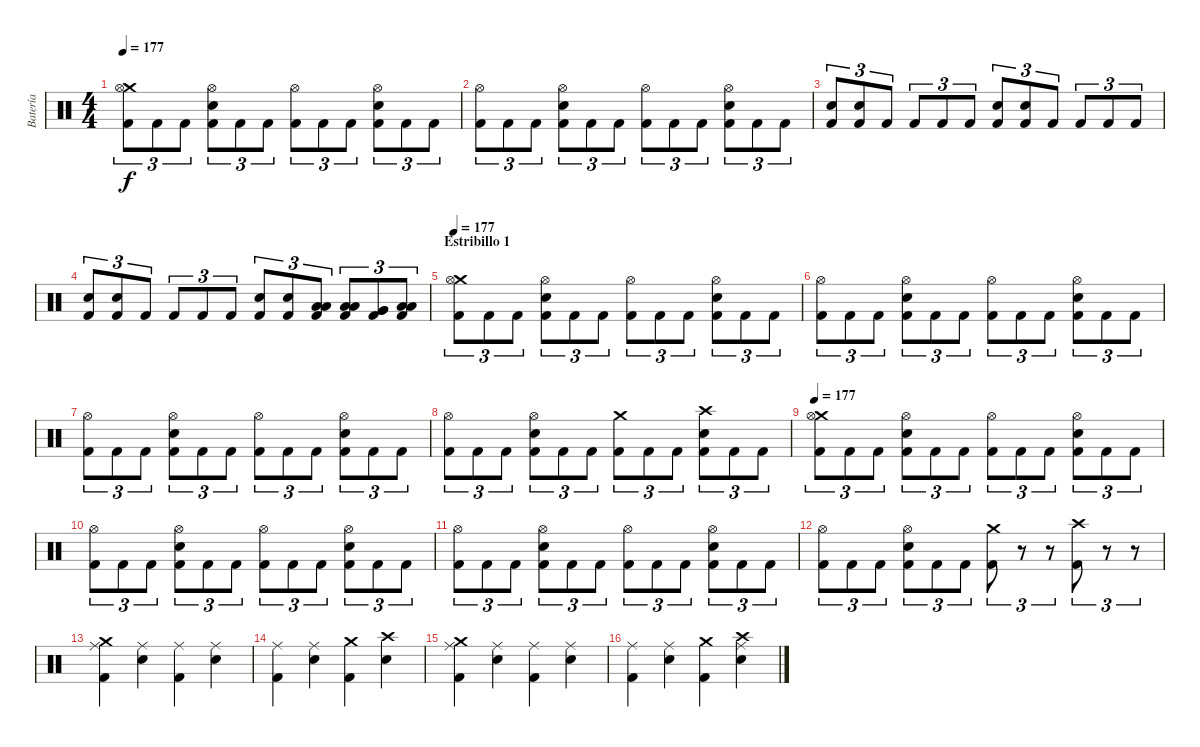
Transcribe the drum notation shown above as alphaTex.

\track ("Batería" "Batería") {instrument percussion}
\staff {score}
\articulation defaults
\ts (4 4)
\tempo 177
\clef neutral
\ks c
("Crash medium (hit)" "Hi-Hat (open)" "Kick (hit) 2").8{tu (3 2) dy f} "Kick (hit) 2".8{tu (3 2)} "Kick (hit) 2".8{tu (3 2)} ("Hi-Hat (open)" "Snare (hit) 2" "Kick (hit) 2").8{tu (3 2)} "Kick (hit) 2".8{tu (3 2)} "Kick (hit) 2".8{tu (3 2)} ("Hi-Hat (open)" "Kick (hit) 2").8{tu (3 2)} "Kick (hit) 2".8{tu (3 2)} "Kick (hit) 2".8{tu (3 2)} ("Hi-Hat (open)" "Snare (hit) 2" "Kick (hit) 2").8{tu (3 2)} "Kick (hit) 2".8{tu (3 2)} "Kick (hit) 2".8{tu (3 2)} |
("Hi-Hat (open)" "Kick (hit) 2").8{tu (3 2)} "Kick (hit) 2".8{tu (3 2)} "Kick (hit) 2".8{tu (3 2)} ("Hi-Hat (open)" "Snare (hit) 2" "Kick (hit) 2").8{tu (3 2)} "Kick (hit) 2".8{tu (3 2)} "Kick (hit) 2".8{tu (3 2)} ("Hi-Hat (open)" "Kick (hit) 2").8{tu (3 2)} "Kick (hit) 2".8{tu (3 2)} "Kick (hit) 2".8{tu (3 2)} ("Hi-Hat (open)" "Snare (hit) 2" "Kick (hit) 2").8{tu (3 2)} "Kick (hit) 2".8{tu (3 2)} "Kick (hit) 2".8{tu (3 2)} |
("Snare (hit) 2" "Kick (hit) 2").8{tu (3 2)} ("Snare (hit) 2" "Kick (hit) 2").8{tu (3 2)} "Kick (hit) 2".8{tu (3 2)} "Kick (hit) 2".8{tu (3 2)} "Kick (hit) 2".8{tu (3 2)} "Kick (hit) 2".8{tu (3 2)} ("Snare (hit) 2" "Kick (hit) 2").8{tu (3 2)} ("Snare (hit) 2" "Kick (hit) 2").8{tu (3 2)} "Kick (hit) 2".8{tu (3 2)} "Kick (hit) 2".8{tu (3 2)} "Kick (hit) 2".8{tu (3 2)} "Kick (hit) 2".8{tu (3 2)} |
("Snare (hit) 2" "Kick (hit) 2").8{tu (3 2)} ("Snare (hit) 2" "Kick (hit) 2").8{tu (3 2)} "Kick (hit) 2".8{tu (3 2)} "Kick (hit) 2".8{tu (3 2)} "Kick (hit) 2".8{tu (3 2)} "Kick (hit) 2".8{tu (3 2)} ("Snare (hit) 2" "Kick (hit) 2").8{tu (3 2)} ("Snare (hit) 2" "Kick (hit) 2").8{tu (3 2)} ("Low Tom (hit)" "Low Tom (hit)" "Kick (hit) 2").8{tu (3 2)} ("Low Tom (hit)" "Low Tom (hit)" "Kick (hit) 2").8{tu (3 2)} ("Very Low Tom (hit)" "Very Low Tom (hit)" "Kick (hit) 2").8{tu (3 2)} ("Low Floor Tom (hit)" "Low Floor Tom (hit)" "Kick (hit) 2").8{tu (3 2)} |
\section ("" "Estribillo 1")
\tempo 177
("Crash medium (hit)" "Hi-Hat (open)" "Kick (hit) 2").8{tu (3 2)} "Kick (hit) 2".8{tu (3 2)} "Kick (hit) 2".8{tu (3 2)} ("Hi-Hat (open)" "Snare (hit) 2" "Kick (hit) 2").8{tu (3 2)} "Kick (hit) 2".8{tu (3 2)} "Kick (hit) 2".8{tu (3 2)} ("Hi-Hat (open)" "Kick (hit) 2").8{tu (3 2)} "Kick (hit) 2".8{tu (3 2)} "Kick (hit) 2".8{tu (3 2)} ("Hi-Hat (open)" "Snare (hit) 2" "Kick (hit) 2").8{tu (3 2)} "Kick (hit) 2".8{tu (3 2)} "Kick (hit) 2".8{tu (3 2)} |
("Hi-Hat (open)" "Kick (hit) 2").8{tu (3 2)} "Kick (hit) 2".8{tu (3 2)} "Kick (hit) 2".8{tu (3 2)} ("Hi-Hat (open)" "Snare (hit) 2" "Kick (hit) 2").8{tu (3 2)} "Kick (hit) 2".8{tu (3 2)} "Kick (hit) 2".8{tu (3 2)} ("Hi-Hat (open)" "Kick (hit) 2").8{tu (3 2)} "Kick (hit) 2".8{tu (3 2)} "Kick (hit) 2".8{tu (3 2)} ("Hi-Hat (open)" "Snare (hit) 2" "Kick (hit) 2").8{tu (3 2)} "Kick (hit) 2".8{tu (3 2)} "Kick (hit) 2".8{tu (3 2)} |
("Hi-Hat (open)" "Kick (hit) 2").8{tu (3 2)} "Kick (hit) 2".8{tu (3 2)} "Kick (hit) 2".8{tu (3 2)} ("Hi-Hat (open)" "Snare (hit) 2" "Kick (hit) 2").8{tu (3 2)} "Kick (hit) 2".8{tu (3 2)} "Kick (hit) 2".8{tu (3 2)} ("Hi-Hat (open)" "Kick (hit) 2").8{tu (3 2)} "Kick (hit) 2".8{tu (3 2)} "Kick (hit) 2".8{tu (3 2)} ("Hi-Hat (open)" "Snare (hit) 2" "Kick (hit) 2").8{tu (3 2)} "Kick (hit) 2".8{tu (3 2)} "Kick (hit) 2".8{tu (3 2)} |
("Hi-Hat (open)" "Kick (hit) 2").8{tu (3 2)} "Kick (hit) 2".8{tu (3 2)} "Kick (hit) 2".8{tu (3 2)} ("Hi-Hat (open)" "Snare (hit) 2" "Kick (hit) 2").8{tu (3 2)} "Kick (hit) 2".8{tu (3 2)} "Kick (hit) 2".8{tu (3 2)} ("Crash medium (hit)" "Kick (hit) 2").8{tu (3 2)} "Kick (hit) 2".8{tu (3 2)} "Kick (hit) 2".8{tu (3 2)} ("Crash high (hit)" "Snare (hit) 2" "Kick (hit) 2").8{tu (3 2)} "Kick (hit) 2".8{tu (3 2)} "Kick (hit) 2".8{tu (3 2)} |
\tempo 177
("Crash medium (hit)" "Hi-Hat (open)" "Kick (hit) 2").8{tu (3 2)} "Kick (hit) 2".8{tu (3 2)} "Kick (hit) 2".8{tu (3 2)} ("Hi-Hat (open)" "Snare (hit) 2" "Kick (hit) 2").8{tu (3 2)} "Kick (hit) 2".8{tu (3 2)} "Kick (hit) 2".8{tu (3 2)} ("Hi-Hat (open)" "Kick (hit) 2").8{tu (3 2)} "Kick (hit) 2".8{tu (3 2)} "Kick (hit) 2".8{tu (3 2)} ("Hi-Hat (open)" "Snare (hit) 2" "Kick (hit) 2").8{tu (3 2)} "Kick (hit) 2".8{tu (3 2)} "Kick (hit) 2".8{tu (3 2)} |
("Hi-Hat (open)" "Kick (hit) 2").8{tu (3 2)} "Kick (hit) 2".8{tu (3 2)} "Kick (hit) 2".8{tu (3 2)} ("Hi-Hat (open)" "Snare (hit) 2" "Kick (hit) 2").8{tu (3 2)} "Kick (hit) 2".8{tu (3 2)} "Kick (hit) 2".8{tu (3 2)} ("Hi-Hat (open)" "Kick (hit) 2").8{tu (3 2)} "Kick (hit) 2".8{tu (3 2)} "Kick (hit) 2".8{tu (3 2)} ("Hi-Hat (open)" "Snare (hit) 2" "Kick (hit) 2").8{tu (3 2)} "Kick (hit) 2".8{tu (3 2)} "Kick (hit) 2".8{tu (3 2)} |
("Hi-Hat (open)" "Kick (hit) 2").8{tu (3 2)} "Kick (hit) 2".8{tu (3 2)} "Kick (hit) 2".8{tu (3 2)} ("Hi-Hat (open)" "Snare (hit) 2" "Kick (hit) 2").8{tu (3 2)} "Kick (hit) 2".8{tu (3 2)} "Kick (hit) 2".8{tu (3 2)} ("Hi-Hat (open)" "Kick (hit) 2").8{tu (3 2)} "Kick (hit) 2".8{tu (3 2)} "Kick (hit) 2".8{tu (3 2)} ("Hi-Hat (open)" "Snare (hit) 2" "Kick (hit) 2").8{tu (3 2)} "Kick (hit) 2".8{tu (3 2)} "Kick (hit) 2".8{tu (3 2)} |
("Hi-Hat (open)" "Kick (hit) 2").8{tu (3 2)} "Kick (hit) 2".8{tu (3 2)} "Kick (hit) 2".8{tu (3 2)} ("Hi-Hat (open)" "Snare (hit) 2" "Kick (hit) 2").8{tu (3 2)} "Kick (hit) 2".8{tu (3 2)} "Kick (hit) 2".8{tu (3 2)} ("Crash medium (hit)" "Kick (hit) 2").8{tu (3 2)} r.8{tu (3 2)} r.8{tu (3 2)} ("Crash high (hit)" "Kick (hit) 2").8{tu (3 2)} r.8{tu (3 2)} r.8{tu (3 2)} |
("Crash medium (hit)" "Ride (middle)" "Kick (hit) 2").4 ("Ride (middle)" "Snare (hit) 2").4 ("Ride (middle)" "Kick (hit) 2").4 ("Ride (middle)" "Snare (hit) 2").4 |
("Ride (middle)" "Kick (hit) 2").4 ("Ride (middle)" "Snare (hit) 2").4 ("Crash medium (hit)" "Kick (hit) 2").4 ("Crash high (hit)" "Snare (hit) 2").4 |
("Crash medium (hit)" "Ride (middle)" "Kick (hit) 2").4 ("Ride (middle)" "Snare (hit) 2").4 ("Ride (middle)" "Kick (hit) 2").4 ("Ride (middle)" "Snare (hit) 2").4 |
("Ride (middle)" "Kick (hit) 2").4 ("Ride (middle)" "Snare (hit) 2").4 ("Crash medium (hit)" "Kick (hit) 2").4 ("Crash high (hit)" "Ride (middle)" "Snare (hit) 2").4
